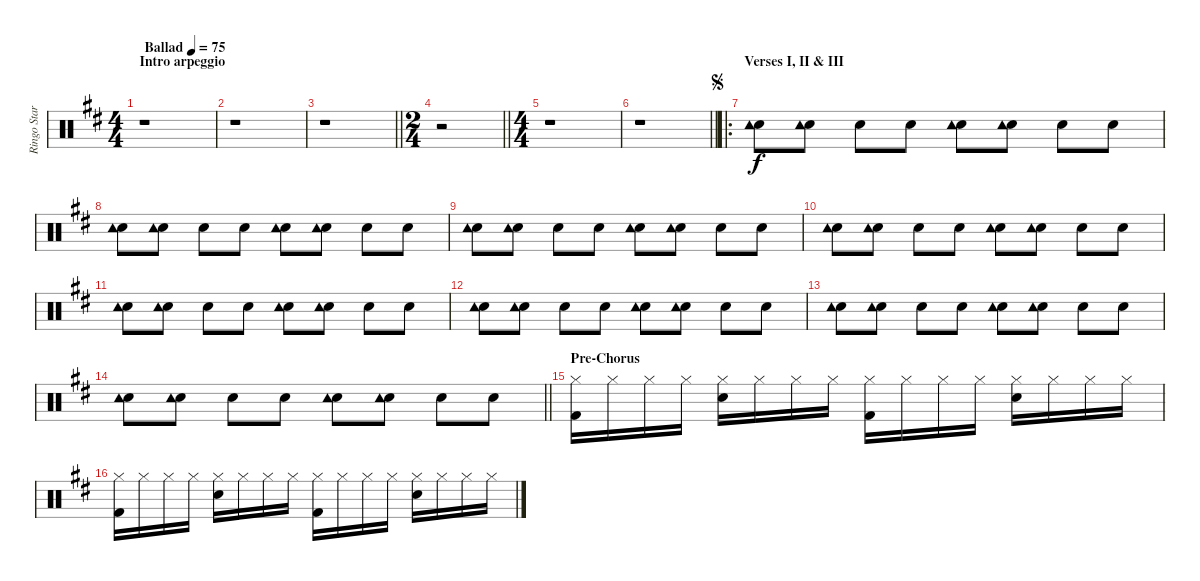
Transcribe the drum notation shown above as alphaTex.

\track ("Ringo Star' drums" "Ringo Star") {instrument percussion}
\staff {score}
\articulation defaults
\ts (4 4)
\section ("" "Intro arpeggio")
\tempo (75 "Ballad")
\clef neutral
\ks d
r.1{dy f} |
r.1 |
\barLineRight lightlight
r.1 |
\ts (2 4)
\barLineRight lightlight
r.2 |
\ts (4 4)
r.1 |
\barLineRight lightlight
r.1 |
\ro
\section ("" "Verses I, II & III")
\jump segno
("Hand Clap (hit)" "Tambourine (hit)").8 ("Hand Clap (hit)" "Tambourine (hit)").8 "Hand Clap (hit)".8 "Hand Clap (hit)".8 ("Hand Clap (hit)" "Tambourine (hit)").8 ("Hand Clap (hit)" "Tambourine (hit)").8 "Hand Clap (hit)".8 "Hand Clap (hit)".8 |
("Hand Clap (hit)" "Tambourine (hit)").8 ("Hand Clap (hit)" "Tambourine (hit)").8 "Hand Clap (hit)".8 "Hand Clap (hit)".8 ("Hand Clap (hit)" "Tambourine (hit)").8 ("Hand Clap (hit)" "Tambourine (hit)").8 "Hand Clap (hit)".8 "Hand Clap (hit)".8 |
("Hand Clap (hit)" "Tambourine (hit)").8 ("Hand Clap (hit)" "Tambourine (hit)").8 "Hand Clap (hit)".8 "Hand Clap (hit)".8 ("Hand Clap (hit)" "Tambourine (hit)").8 ("Hand Clap (hit)" "Tambourine (hit)").8 "Hand Clap (hit)".8 "Hand Clap (hit)".8 |
("Hand Clap (hit)" "Tambourine (hit)").8 ("Hand Clap (hit)" "Tambourine (hit)").8 "Hand Clap (hit)".8 "Hand Clap (hit)".8 ("Hand Clap (hit)" "Tambourine (hit)").8 ("Hand Clap (hit)" "Tambourine (hit)").8 "Hand Clap (hit)".8 "Hand Clap (hit)".8 |
("Hand Clap (hit)" "Tambourine (hit)").8 ("Hand Clap (hit)" "Tambourine (hit)").8 "Hand Clap (hit)".8 "Hand Clap (hit)".8 ("Hand Clap (hit)" "Tambourine (hit)").8 ("Hand Clap (hit)" "Tambourine (hit)").8 "Hand Clap (hit)".8 "Hand Clap (hit)".8 |
("Hand Clap (hit)" "Tambourine (hit)").8 ("Hand Clap (hit)" "Tambourine (hit)").8 "Hand Clap (hit)".8 "Hand Clap (hit)".8 ("Hand Clap (hit)" "Tambourine (hit)").8 ("Hand Clap (hit)" "Tambourine (hit)").8 "Hand Clap (hit)".8 "Hand Clap (hit)".8 |
("Hand Clap (hit)" "Tambourine (hit)").8 ("Hand Clap (hit)" "Tambourine (hit)").8 "Hand Clap (hit)".8 "Hand Clap (hit)".8 ("Hand Clap (hit)" "Tambourine (hit)").8 ("Hand Clap (hit)" "Tambourine (hit)").8 "Hand Clap (hit)".8 "Hand Clap (hit)".8 |
\barLineRight lightlight
("Hand Clap (hit)" "Tambourine (hit)").8 ("Hand Clap (hit)" "Tambourine (hit)").8 "Hand Clap (hit)".8 "Hand Clap (hit)".8 ("Hand Clap (hit)" "Tambourine (hit)").8 ("Hand Clap (hit)" "Tambourine (hit)").8 "Hand Clap (hit)".8 "Hand Clap (hit)".8 |
\section ("" "Pre-Chorus")
("Hi-Hat (closed)" "Kick (hit) 2").16 "Hi-Hat (closed)".16 "Hi-Hat (closed)".16 "Hi-Hat (closed)".16 ("Hi-Hat (closed)" "Snare (hit) 2").16 "Hi-Hat (closed)".16 "Hi-Hat (closed)".16 "Hi-Hat (closed)".16 ("Hi-Hat (closed)" "Kick (hit) 2").16 "Hi-Hat (closed)".16 "Hi-Hat (closed)".16 "Hi-Hat (closed)".16 ("Hi-Hat (closed)" "Snare (hit) 2").16 "Hi-Hat (closed)".16 "Hi-Hat (closed)".16 "Hi-Hat (closed)".16 |
("Hi-Hat (closed)" "Kick (hit) 2").16 "Hi-Hat (closed)".16 "Hi-Hat (closed)".16 "Hi-Hat (closed)".16 ("Hi-Hat (closed)" "Snare (hit) 2").16 "Hi-Hat (closed)".16 "Hi-Hat (closed)".16 "Hi-Hat (closed)".16 ("Hi-Hat (closed)" "Kick (hit) 2").16 "Hi-Hat (closed)".16 "Hi-Hat (closed)".16 "Hi-Hat (closed)".16 ("Hi-Hat (closed)" "Snare (hit) 2").16 "Hi-Hat (closed)".16 "Hi-Hat (closed)".16 "Hi-Hat (closed)".16
